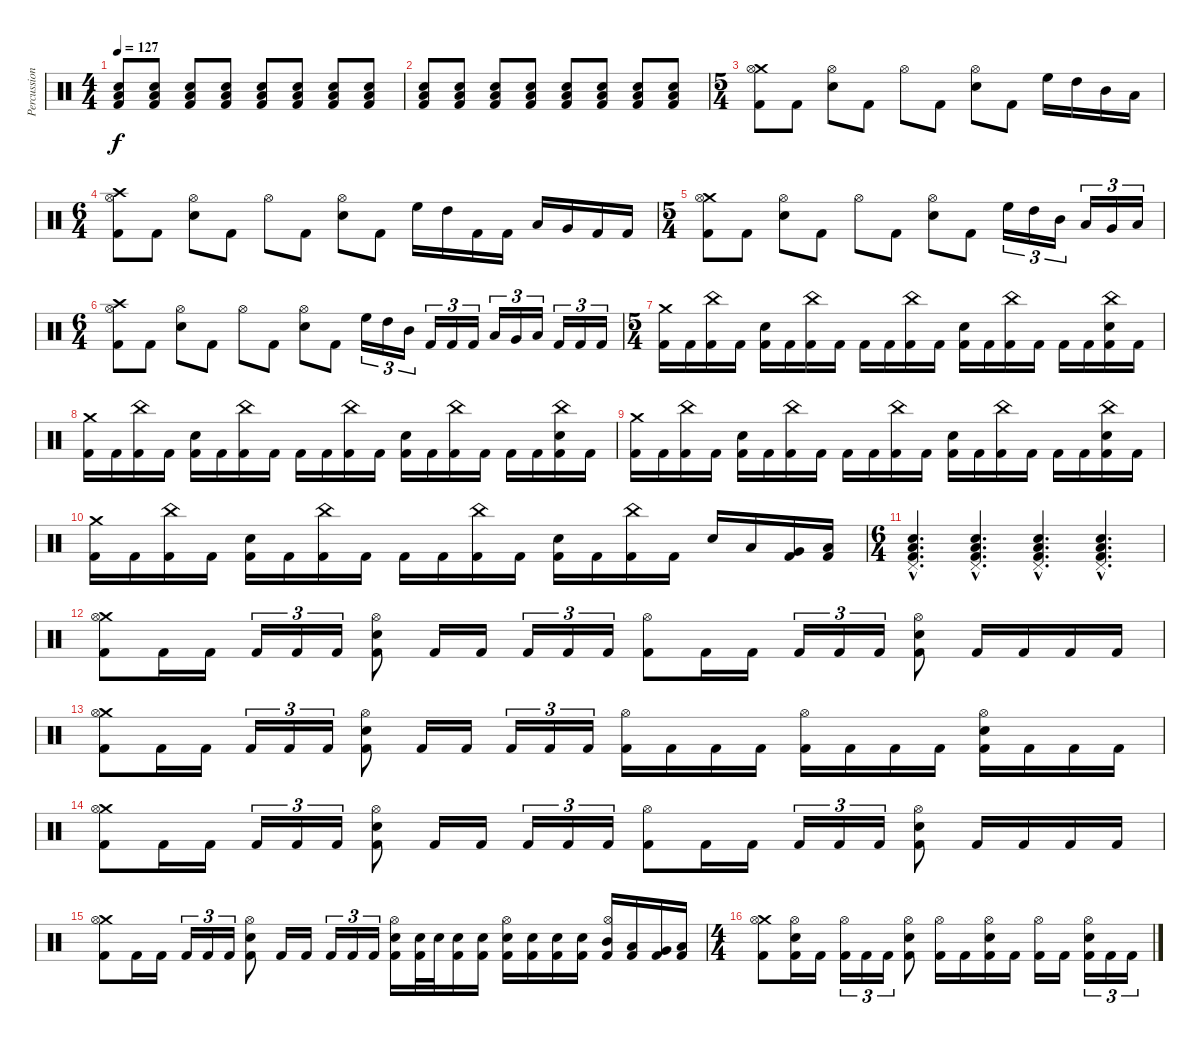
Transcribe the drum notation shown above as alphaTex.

\track ("Percussion" "Percussion") {instrument percussion}
\staff {score}
\articulation defaults
\ts (4 4)
\tempo 127
\clef neutral
\ks c
("Low Floor Tom (hit)" "Electric Snare (hit)" "Kick (hit) 2").8{dy f volume 0} ("Low Floor Tom (hit)" "Electric Snare (hit)" "Kick (hit) 2").8{volume 13} ("Low Floor Tom (hit)" "Electric Snare (hit)" "Kick (hit) 2").8 ("Low Floor Tom (hit)" "Electric Snare (hit)" "Kick (hit) 2").8 ("Low Floor Tom (hit)" "Electric Snare (hit)" "Kick (hit) 2").8 ("Low Floor Tom (hit)" "Electric Snare (hit)" "Kick (hit) 2").8 ("Low Floor Tom (hit)" "Electric Snare (hit)" "Kick (hit) 2").8 ("Low Floor Tom (hit)" "Electric Snare (hit)" "Kick (hit) 2").8 |
("Low Floor Tom (hit)" "Electric Snare (hit)" "Kick (hit) 2").8 ("Low Floor Tom (hit)" "Electric Snare (hit)" "Kick (hit) 2").8 ("Low Floor Tom (hit)" "Electric Snare (hit)" "Kick (hit) 2").8 ("Low Floor Tom (hit)" "Electric Snare (hit)" "Kick (hit) 2").8 ("Low Floor Tom (hit)" "Electric Snare (hit)" "Kick (hit) 2").8 ("Low Floor Tom (hit)" "Electric Snare (hit)" "Kick (hit) 2").8 ("Low Floor Tom (hit)" "Electric Snare (hit)" "Kick (hit) 2").8 ("Low Floor Tom (hit)" "Electric Snare (hit)" "Kick (hit) 2").8 |
\ts (5 4)
("Crash medium (hit)" "Hi-Hat (open)" "Kick (hit) 2").8 "Kick (hit) 2".8 ("Hi-Hat (open)" "Electric Snare (hit)").8 "Kick (hit) 2".8 "Hi-Hat (open)".8 "Kick (hit) 2".8 ("Hi-Hat (open)" "Electric Snare (hit)").8 "Kick (hit) 2".8 "High Floor Tom (hit)".16 "High Tom (hit)".16 "Mid Tom (hit)".16 "Low Tom (hit)".16 |
\ts (6 4)
("Crash high (hit)" "Hi-Hat (open)" "Kick (hit) 2").8 "Kick (hit) 2".8 ("Hi-Hat (open)" "Electric Snare (hit)").8 "Kick (hit) 2".8 "Hi-Hat (open)".8 "Kick (hit) 2".8 ("Hi-Hat (open)" "Electric Snare (hit)").8 "Kick (hit) 2".8 "High Floor Tom (hit)".16 "High Tom (hit)".16 "Kick (hit) 2".16 "Kick (hit) 2".16 "Low Tom (hit)".16 "Very Low Tom (hit)".16 "Kick (hit) 2".16 "Kick (hit) 2".16 |
\ts (5 4)
("Crash medium (hit)" "Hi-Hat (open)" "Kick (hit) 2").8 "Kick (hit) 2".8 ("Hi-Hat (open)" "Electric Snare (hit)").8 "Kick (hit) 2".8 "Hi-Hat (open)".8 "Kick (hit) 2".8 ("Hi-Hat (open)" "Electric Snare (hit)").8 "Kick (hit) 2".8 "High Floor Tom (hit)".16{tu (3 2)} "High Tom (hit)".16{tu (3 2)} "Mid Tom (hit)".16{tu (3 2)} "Low Tom (hit)".16{tu (3 2)} "Very Low Tom (hit)".16{tu (3 2)} "Low Floor Tom (hit)".16{tu (3 2)} |
\ts (6 4)
("Crash high (hit)" "Hi-Hat (open)" "Kick (hit) 2").8 "Kick (hit) 2".8 ("Hi-Hat (open)" "Electric Snare (hit)").8 "Kick (hit) 2".8 "Hi-Hat (open)".8 "Kick (hit) 2".8 ("Hi-Hat (open)" "Electric Snare (hit)").8 "Kick (hit) 2".8 "High Floor Tom (hit)".16{tu (3 2)} "High Tom (hit)".16{tu (3 2)} "Mid Tom (hit)".16{tu (3 2)} "Kick (hit) 2".16{tu (3 2)} "Kick (hit) 2".16{tu (3 2)} "Kick (hit) 2".16{tu (3 2)} "Low Tom (hit)".16{tu (3 2)} "Very Low Tom (hit)".16{tu (3 2)} "Low Floor Tom (hit)".16{tu (3 2)} "Kick (hit) 2".16{tu (3 2)} "Kick (hit) 2".16{tu (3 2)} "Kick (hit) 2".16{tu (3 2)} |
\ts (5 4)
("Crash medium (hit)" "Kick (hit) 2").16 "Kick (hit) 2".16 ("China (hit)" "Kick (hit) 2").16 "Kick (hit) 2".16 ("Electric Snare (hit)" "Kick (hit) 2").16 "Kick (hit) 2".16 ("China (hit)" "Kick (hit) 2").16 "Kick (hit) 2".16 "Kick (hit) 2".16 "Kick (hit) 2".16 ("China (hit)" "Kick (hit) 2").16 "Kick (hit) 2".16 ("Electric Snare (hit)" "Kick (hit) 2").16 "Kick (hit) 2".16 ("China (hit)" "Kick (hit) 2").16 "Kick (hit) 2".16 "Kick (hit) 2".16 "Kick (hit) 2".16 ("China (hit)" "Electric Snare (hit)" "Kick (hit) 2").16 "Kick (hit) 2".16 |
("Crash medium (hit)" "Kick (hit) 2").16 "Kick (hit) 2".16 ("China (hit)" "Kick (hit) 2").16 "Kick (hit) 2".16 ("Electric Snare (hit)" "Kick (hit) 2").16 "Kick (hit) 2".16 ("China (hit)" "Kick (hit) 2").16 "Kick (hit) 2".16 "Kick (hit) 2".16 "Kick (hit) 2".16 ("China (hit)" "Kick (hit) 2").16 "Kick (hit) 2".16 ("Electric Snare (hit)" "Kick (hit) 2").16 "Kick (hit) 2".16 ("China (hit)" "Kick (hit) 2").16 "Kick (hit) 2".16 "Kick (hit) 2".16 "Kick (hit) 2".16 ("China (hit)" "Electric Snare (hit)" "Kick (hit) 2").16 "Kick (hit) 2".16 |
("Crash medium (hit)" "Kick (hit) 2").16 "Kick (hit) 2".16 ("China (hit)" "Kick (hit) 2").16 "Kick (hit) 2".16 ("Electric Snare (hit)" "Kick (hit) 2").16 "Kick (hit) 2".16 ("China (hit)" "Kick (hit) 2").16 "Kick (hit) 2".16 "Kick (hit) 2".16 "Kick (hit) 2".16 ("China (hit)" "Kick (hit) 2").16 "Kick (hit) 2".16 ("Electric Snare (hit)" "Kick (hit) 2").16 "Kick (hit) 2".16 ("China (hit)" "Kick (hit) 2").16 "Kick (hit) 2".16 "Kick (hit) 2".16 "Kick (hit) 2".16 ("China (hit)" "Electric Snare (hit)" "Kick (hit) 2").16 "Kick (hit) 2".16 |
("Crash medium (hit)" "Kick (hit) 2").16 "Kick (hit) 2".16 ("China (hit)" "Kick (hit) 2").16 "Kick (hit) 2".16 ("Electric Snare (hit)" "Kick (hit) 2").16 "Kick (hit) 2".16 ("China (hit)" "Kick (hit) 2").16 "Kick (hit) 2".16 "Kick (hit) 2".16 "Kick (hit) 2".16 ("China (hit)" "Kick (hit) 2").16 "Kick (hit) 2".16 ("Electric Snare (hit)" "Kick (hit) 2").16 "Kick (hit) 2".16 ("China (hit)" "Kick (hit) 2").16 "Kick (hit) 2".16 "Electric Snare (hit)".16 "Low Tom (hit)".16 ("Very Low Tom (hit)" "Kick (hit) 2").16 ("Low Floor Tom (hit)" "Kick (hit) 2").16 |
\ts (6 4)
("Pedal Hi-Hat (hit)"{hac} "Low Floor Tom (hit)"{hac} "Electric Snare (hit)"{hac} "Kick (hit) 2"{hac}).4{d} ("Pedal Hi-Hat (hit)"{hac} "Low Floor Tom (hit)"{hac} "Electric Snare (hit)"{hac} "Kick (hit) 2"{hac}).4{d} ("Pedal Hi-Hat (hit)"{hac} "Low Floor Tom (hit)"{hac} "Electric Snare (hit)"{hac} "Kick (hit) 2"{hac}).4{d} ("Pedal Hi-Hat (hit)"{hac} "Low Floor Tom (hit)"{hac} "Electric Snare (hit)"{hac} "Kick (hit) 2"{hac}).4{d} |
("Crash medium (hit)" "Hi-Hat (open)" "Kick (hit) 2").8 "Kick (hit) 2".16 "Kick (hit) 2".16 "Kick (hit) 2".16{tu (3 2)} "Kick (hit) 2".16{tu (3 2)} "Kick (hit) 2".16{tu (3 2)} ("Hi-Hat (open)" "Electric Snare (hit)" "Kick (hit) 2").8 "Kick (hit) 2".16 "Kick (hit) 2".16 "Kick (hit) 2".16{tu (3 2)} "Kick (hit) 2".16{tu (3 2)} "Kick (hit) 2".16{tu (3 2)} ("Hi-Hat (open)" "Kick (hit) 2").8 "Kick (hit) 2".16 "Kick (hit) 2".16 "Kick (hit) 2".16{tu (3 2)} "Kick (hit) 2".16{tu (3 2)} "Kick (hit) 2".16{tu (3 2)} ("Hi-Hat (open)" "Electric Snare (hit)" "Kick (hit) 2").8 "Kick (hit) 2".16 "Kick (hit) 2".16 "Kick (hit) 2".16 "Kick (hit) 2".16 |
("Crash medium (hit)" "Hi-Hat (open)" "Kick (hit) 2").8 "Kick (hit) 2".16 "Kick (hit) 2".16 "Kick (hit) 2".16{tu (3 2)} "Kick (hit) 2".16{tu (3 2)} "Kick (hit) 2".16{tu (3 2)} ("Hi-Hat (open)" "Electric Snare (hit)" "Kick (hit) 2").8 "Kick (hit) 2".16 "Kick (hit) 2".16 "Kick (hit) 2".16{tu (3 2)} "Kick (hit) 2".16{tu (3 2)} "Kick (hit) 2".16{tu (3 2)} ("Hi-Hat (open)" "Kick (hit) 2").16 "Kick (hit) 2".16 "Kick (hit) 2".16 "Kick (hit) 2".16 ("Hi-Hat (open)" "Kick (hit) 2").16 "Kick (hit) 2".16 "Kick (hit) 2".16 "Kick (hit) 2".16 ("Hi-Hat (open)" "Electric Snare (hit)" "Kick (hit) 2").16 "Kick (hit) 2".16 "Kick (hit) 2".16 "Kick (hit) 2".16 |
("Crash medium (hit)" "Hi-Hat (open)" "Kick (hit) 2").8 "Kick (hit) 2".16 "Kick (hit) 2".16 "Kick (hit) 2".16{tu (3 2)} "Kick (hit) 2".16{tu (3 2)} "Kick (hit) 2".16{tu (3 2)} ("Hi-Hat (open)" "Electric Snare (hit)" "Kick (hit) 2").8 "Kick (hit) 2".16 "Kick (hit) 2".16 "Kick (hit) 2".16{tu (3 2)} "Kick (hit) 2".16{tu (3 2)} "Kick (hit) 2".16{tu (3 2)} ("Hi-Hat (open)" "Kick (hit) 2").8 "Kick (hit) 2".16 "Kick (hit) 2".16 "Kick (hit) 2".16{tu (3 2)} "Kick (hit) 2".16{tu (3 2)} "Kick (hit) 2".16{tu (3 2)} ("Hi-Hat (open)" "Electric Snare (hit)" "Kick (hit) 2").8 "Kick (hit) 2".16 "Kick (hit) 2".16 "Kick (hit) 2".16 "Kick (hit) 2".16 |
("Crash medium (hit)" "Hi-Hat (open)" "Kick (hit) 2").8 "Kick (hit) 2".16 "Kick (hit) 2".16 "Kick (hit) 2".16{tu (3 2)} "Kick (hit) 2".16{tu (3 2)} "Kick (hit) 2".16{tu (3 2)} ("Hi-Hat (open)" "Electric Snare (hit)" "Kick (hit) 2").8 "Kick (hit) 2".16 "Kick (hit) 2".16 "Kick (hit) 2".16{tu (3 2)} "Kick (hit) 2".16{tu (3 2)} "Kick (hit) 2".16{tu (3 2)} ("Hi-Hat (open)" "Electric Snare (hit)" "Kick (hit) 2").16 ("Electric Snare (hit)" "Kick (hit) 2").32 "Electric Snare (hit)".32 ("Electric Snare (hit)" "Kick (hit) 2").16 ("Electric Snare (hit)" "Kick (hit) 2").16 ("Hi-Hat (open)" "Electric Snare (hit)" "Kick (hit) 2").16 ("Electric Snare (hit)" "Kick (hit) 2").16 ("Electric Snare (hit)" "Kick (hit) 2").16 ("Electric Snare (hit)" "Kick (hit) 2").16 ("Hi-Hat (open)" "Mid Tom (hit)" "Kick (hit) 2").16 ("Low Tom (hit)" "Kick (hit) 2").16 ("Very Low Tom (hit)" "Kick (hit) 2").16 ("Low Floor Tom (hit)" "Kick (hit) 2").16 |
\ts (4 4)
("Crash medium (hit)" "Hi-Hat (open)" "Kick (hit) 2").8 ("Hi-Hat (open)" "Electric Snare (hit)" "Kick (hit) 2").16 "Kick (hit) 2".16 ("Hi-Hat (open)" "Kick (hit) 2").16{tu (3 2)} "Kick (hit) 2".16{tu (3 2)} "Kick (hit) 2".16{tu (3 2)} ("Hi-Hat (open)" "Electric Snare (hit)" "Kick (hit) 2").8 ("Hi-Hat (open)" "Kick (hit) 2").16 "Kick (hit) 2".16 ("Hi-Hat (open)" "Electric Snare (hit)" "Kick (hit) 2").16 "Kick (hit) 2".16 ("Hi-Hat (open)" "Kick (hit) 2").16 "Kick (hit) 2".16 ("Hi-Hat (open)" "Electric Snare (hit)" "Kick (hit) 2").16{tu (3 2)} "Kick (hit) 2".16{tu (3 2)} "Kick (hit) 2".16{tu (3 2)}
